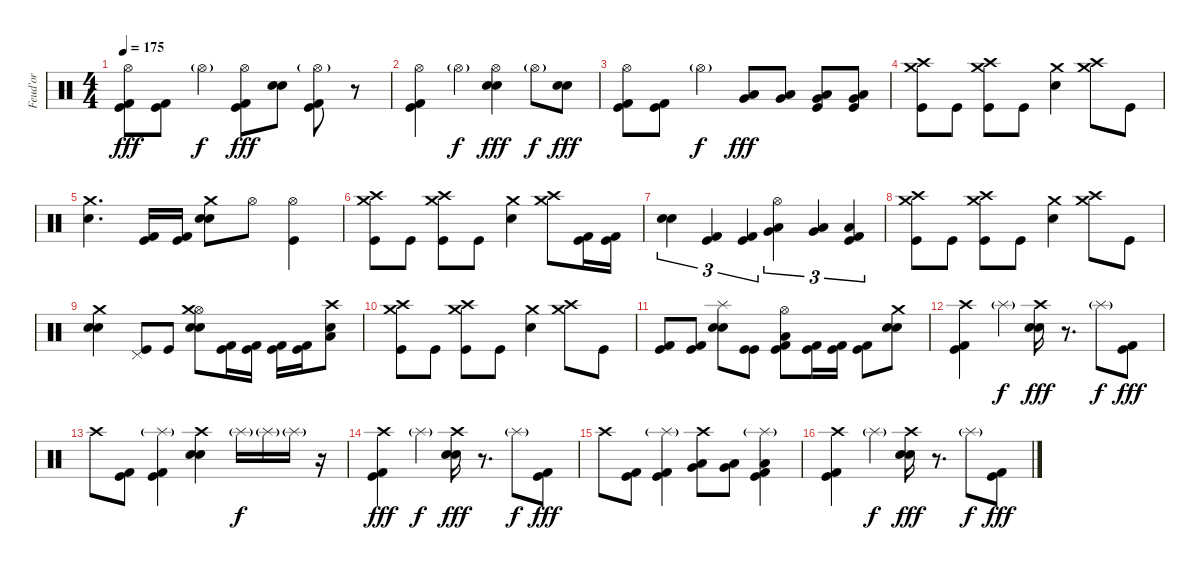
\track ("Feud'or" "Feud'or") {instrument percussion}
\staff {score}
\articulation defaults
\ts (4 4)
\tempo 175
\clef neutral
\ks c
("Hi-Hat (open)" "Kick (hit) 2" "Kick (hit)").8{dy fff} ("Kick (hit) 2" "Kick (hit)").8 "Hi-Hat (open)"{g}.4{dy f} ("Hi-Hat (open)" "Kick (hit) 2" "Kick (hit)").8{dy fff} ("Electric Snare (hit)" "Snare (hit) 2").8 ("Hi-Hat (open)"{g} "Kick (hit) 2" "Kick (hit)").8 r.8 |
("Hi-Hat (open)" "Kick (hit) 2" "Kick (hit)").4 "Hi-Hat (open)"{g}.4{dy f} ("Hi-Hat (open)" "Electric Snare (hit)" "Snare (hit) 2").4{dy fff} "Hi-Hat (open)"{g}.8{dy f} ("Electric Snare (hit)" "Snare (hit) 2").8{dy fff} |
("Hi-Hat (open)" "Kick (hit) 2" "Kick (hit)").8 ("Kick (hit) 2" "Kick (hit)").8 "Hi-Hat (open)"{g}.4{dy f} ("Low Tom (hit)" "Very Low Tom (hit)").8{dy fff} ("Low Tom (hit)" "Very Low Tom (hit)").8 ("Very Low Tom (hit)" "Low Floor Tom (hit)" "Kick (hit)").8 ("Very Low Tom (hit)" "Low Floor Tom (hit)" "Kick (hit)").8 |
("Crash medium (hit)" "Crash high (hit)" "Kick (hit)").8 "Kick (hit)".8 ("Crash medium (hit)" "Crash high (hit)" "Kick (hit)").8 "Kick (hit)".8 ("Crash medium (hit)" "Snare (hit) 2").4 ("Crash medium (hit)" "Crash high (hit)").8 "Kick (hit)".8 |
("Crash medium (hit)" "Snare (hit) 2").4{d} ("Kick (hit) 2" "Kick (hit)").16 ("Kick (hit) 2" "Kick (hit)").16 ("Crash medium (hit)" "Electric Snare (hit)" "Snare (hit) 2").8 "Hi-Hat (open)".8 ("Hi-Hat (open)" "Kick (hit)").4 |
("Crash medium (hit)" "Crash high (hit)" "Kick (hit)").8 "Kick (hit)".8 ("Crash medium (hit)" "Crash high (hit)" "Kick (hit)").8 "Kick (hit)".8 ("Crash medium (hit)" "Snare (hit) 2").4 ("Crash medium (hit)" "Crash high (hit)").8 ("Kick (hit) 2" "Kick (hit)").16 ("Kick (hit) 2" "Kick (hit)").16 |
("Electric Snare (hit)" "Snare (hit) 2").4{tu (3 2)} ("Kick (hit) 2" "Kick (hit)").4{tu (3 2)} ("Kick (hit) 2" "Kick (hit)").4{tu (3 2)} ("Hi-Hat (open)" "Low Tom (hit)" "Very Low Tom (hit)").4{tu (3 2)} ("Very Low Tom (hit)" "Low Floor Tom (hit)").4{tu (3 2)} ("Low Floor Tom (hit)" "Kick (hit) 2" "Kick (hit)").4{tu (3 2)} |
("Crash medium (hit)" "Crash high (hit)" "Kick (hit)").8 "Kick (hit)".8 ("Crash medium (hit)" "Crash high (hit)" "Kick (hit)").8 "Kick (hit)".8 ("Crash medium (hit)" "Snare (hit) 2").4 ("Crash medium (hit)" "Crash high (hit)").8 "Kick (hit)".8 |
("Crash medium (hit)" "Electric Snare (hit)" "Snare (hit) 2").4 ("Pedal Hi-Hat (hit)" "Kick (hit)").8 "Kick (hit)".8 ("Hi-Hat (open)" "Crash medium (hit)" "Electric Snare (hit)" "Snare (hit) 2").8 ("Kick (hit) 2" "Kick (hit)").16 ("Kick (hit) 2" "Kick (hit)").16 ("Kick (hit) 2" "Kick (hit)").16 ("Kick (hit) 2" "Kick (hit)").16 ("Crash high (hit)" "Low Floor Tom (hit)" "Snare (hit) 2").8 |
("Crash medium (hit)" "Crash high (hit)" "Kick (hit)").8 "Kick (hit)".8 ("Crash medium (hit)" "Crash high (hit)" "Kick (hit)").8 "Kick (hit)".8 ("Crash medium (hit)" "Snare (hit) 2").4 ("Crash medium (hit)" "Crash high (hit)").8 "Kick (hit)".8 |
("Kick (hit) 2" "Kick (hit)").8 ("Kick (hit) 2" "Kick (hit)").8 ("Splash (hit)" "Electric Snare (hit)" "Snare (hit) 2").8 ("Kick (hit)" "Kick (hit)").8 ("Hi-Hat (open)" "Low Floor Tom (hit)" "Kick (hit) 2" "Kick (hit)").8 ("Kick (hit) 2" "Kick (hit)").16 ("Kick (hit) 2" "Kick (hit)").16 ("Kick (hit) 2" "Kick (hit)").8 ("Crash medium (hit)" "Electric Snare (hit)" "Snare (hit) 2").8 |
("Crash high (hit)" "Kick (hit) 2" "Kick (hit)").4 "Splash (hit)"{g}.4{dy f} ("Crash high (hit)" "Electric Snare (hit)" "Snare (hit) 2").16{dy fff} r.8{d} "Splash (hit)"{g}.8{dy f} ("Kick (hit) 2" "Kick (hit)").8{dy fff} |
"Crash high (hit)".8 ("Kick (hit) 2" "Kick (hit)").8 ("Splash (hit)"{g} "Kick (hit) 2" "Kick (hit)").4 ("Crash high (hit)" "Electric Snare (hit)" "Snare (hit) 2").4 "Splash (hit)"{g}.16{dy f} "Splash (hit)"{g}.16 "Splash (hit)"{g}.16 r.16 |
("Crash high (hit)" "Kick (hit) 2" "Kick (hit)").4{dy fff} "Splash (hit)"{g}.4{dy f} ("Crash high (hit)" "Electric Snare (hit)" "Snare (hit) 2").16{dy fff} r.8{d} "Splash (hit)"{g}.8{dy f} ("Kick (hit) 2" "Kick (hit)").8{dy fff} |
"Crash high (hit)".8 ("Kick (hit) 2" "Kick (hit)").8 ("Splash (hit)"{g} "Kick (hit) 2" "Kick (hit)").4 ("Crash high (hit)" "Low Tom (hit)" "Very Low Tom (hit)").8 ("Low Tom (hit)" "Very Low Tom (hit)").8 ("Splash (hit)"{g} "Low Floor Tom (hit)" "Kick (hit) 2" "Kick (hit)").4 |
("Crash high (hit)" "Kick (hit) 2" "Kick (hit)").4 "Splash (hit)"{g}.4{dy f} ("Crash high (hit)" "Electric Snare (hit)" "Snare (hit) 2").16{dy fff} r.8{d} "Splash (hit)"{g}.8{dy f} ("Kick (hit) 2" "Kick (hit)").8{dy fff}
